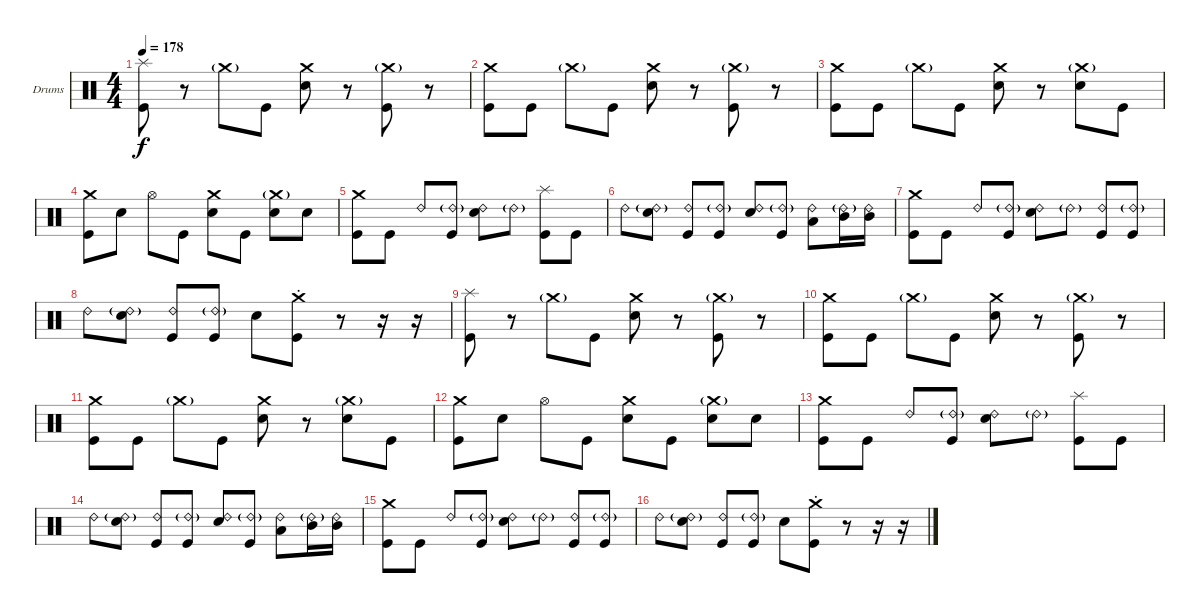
\bracketExtendMode groupsimilarinstruments
\firstSystemTrackNameOrientation horizontal
\otherSystemsTrackNameOrientation horizontal
\track ("Drums" "Drums") {instrument percussion}
\staff {score}
\articulation defaults
\ts (4 4)
\tempo 178
\clef neutral
\ks c
("Splash (hit)" "Kick (hit)").8{dy f} r.8 "Crash medium (hit)"{g}.8 "Kick (hit)".8 ("Snare (hit) 2" "Crash medium (hit)").8 r.8 ("Kick (hit)" "Crash medium (hit)"{g}).8 r.8 |
("Kick (hit)" "Crash medium (hit)").8 "Kick (hit)".8 "Crash medium (hit)"{g}.8 "Kick (hit)".8 ("Snare (hit) 2" "Crash medium (hit)").8 r.8 ("Kick (hit)" "Crash medium (hit)"{g}).8 r.8 |
("Kick (hit)" "Crash medium (hit)").8 "Kick (hit)".8 "Crash medium (hit)"{g}.8 "Kick (hit)".8 ("Snare (hit) 2" "Crash medium (hit)").8 r.8 ("Snare (hit) 2" "Crash medium (hit)"{g}).8 "Kick (hit)".8 |
("Kick (hit)" "Crash medium (hit)").8 "Snare (hit) 2".8 "Hi-Hat (open)".8 "Kick (hit)".8 ("Snare (hit) 2" "Crash medium (hit)").8 "Kick (hit)".8 ("Snare (hit) 2" "Crash medium (hit)"{g}).8 "Snare (hit) 2".8 |
("Kick (hit)" "Crash medium (hit)").8 "Kick (hit)".8 "Ride (bell) 2".8 ("Kick (hit)" "Ride (bell) 2"{g}).8 ("Snare (hit) 2" "Ride (bell) 2").8 "Ride (bell) 2"{g}.8 ("Kick (hit)" "Splash (hit)").8 "Kick (hit)".8 |
"Ride (bell) 2".8 ("Snare (hit) 2" "Ride (bell) 2"{g}).8 ("Kick (hit)" "Ride (bell) 2").8 ("Kick (hit)" "Ride (bell) 2"{g}).8 ("Snare (hit) 2" "Ride (bell) 2").8 ("Kick (hit)" "Ride (bell) 2"{g}).8 ("Low Tom (hit)" "Ride (bell) 2").8 ("Mid Tom (hit)" "Ride (bell) 2"{g}).16 ("Mid Tom (hit)" "Ride (bell) 2").16 |
("Kick (hit)" "Crash medium (hit)").8 "Kick (hit)".8 "Ride (bell) 2".8 ("Kick (hit)" "Ride (bell) 2"{g}).8 ("Snare (hit) 2" "Ride (bell) 2").8 "Ride (bell) 2"{g}.8 ("Kick (hit)" "Ride (bell) 2").8 ("Kick (hit)" "Ride (bell) 2"{g}).8 |
"Ride (bell) 2".8 ("Snare (hit) 2" "Ride (bell) 2"{g}).8 ("Kick (hit)" "Ride (bell) 2").8 ("Kick (hit)" "Ride (bell) 2"{g}).8 "Snare (hit) 2".8 ("Crash medium (hit)"{st} "Kick (hit)").8 r.8 r.16 r.16 |
("Splash (hit)" "Kick (hit)").8 r.8 "Crash medium (hit)"{g}.8 "Kick (hit)".8 ("Snare (hit) 2" "Crash medium (hit)").8 r.8 ("Kick (hit)" "Crash medium (hit)"{g}).8 r.8 |
("Kick (hit)" "Crash medium (hit)").8 "Kick (hit)".8 "Crash medium (hit)"{g}.8 "Kick (hit)".8 ("Snare (hit) 2" "Crash medium (hit)").8 r.8 ("Kick (hit)" "Crash medium (hit)"{g}).8 r.8 |
("Kick (hit)" "Crash medium (hit)").8 "Kick (hit)".8 "Crash medium (hit)"{g}.8 "Kick (hit)".8 ("Snare (hit) 2" "Crash medium (hit)").8 r.8 ("Snare (hit) 2" "Crash medium (hit)"{g}).8 "Kick (hit)".8 |
("Kick (hit)" "Crash medium (hit)").8 "Snare (hit) 2".8 "Hi-Hat (open)".8 "Kick (hit)".8 ("Snare (hit) 2" "Crash medium (hit)").8 "Kick (hit)".8 ("Snare (hit) 2" "Crash medium (hit)"{g}).8 "Snare (hit) 2".8 |
("Kick (hit)" "Crash medium (hit)").8 "Kick (hit)".8 "Ride (bell) 2".8 ("Kick (hit)" "Ride (bell) 2"{g}).8 ("Snare (hit) 2" "Ride (bell) 2").8 "Ride (bell) 2"{g}.8 ("Kick (hit)" "Splash (hit)").8 "Kick (hit)".8 |
"Ride (bell) 2".8 ("Snare (hit) 2" "Ride (bell) 2"{g}).8 ("Kick (hit)" "Ride (bell) 2").8 ("Kick (hit)" "Ride (bell) 2"{g}).8 ("Snare (hit) 2" "Ride (bell) 2").8 ("Kick (hit)" "Ride (bell) 2"{g}).8 ("Low Tom (hit)" "Ride (bell) 2").8 ("Mid Tom (hit)" "Ride (bell) 2"{g}).16 ("Mid Tom (hit)" "Ride (bell) 2").16 |
("Kick (hit)" "Crash medium (hit)").8 "Kick (hit)".8 "Ride (bell) 2".8 ("Kick (hit)" "Ride (bell) 2"{g}).8 ("Snare (hit) 2" "Ride (bell) 2").8 "Ride (bell) 2"{g}.8 ("Kick (hit)" "Ride (bell) 2").8 ("Kick (hit)" "Ride (bell) 2"{g}).8 |
"Ride (bell) 2".8 ("Snare (hit) 2" "Ride (bell) 2"{g}).8 ("Kick (hit)" "Ride (bell) 2").8 ("Kick (hit)" "Ride (bell) 2"{g}).8 "Snare (hit) 2".8 ("Crash medium (hit)"{st} "Kick (hit)").8 r.8 r.16 r.16
